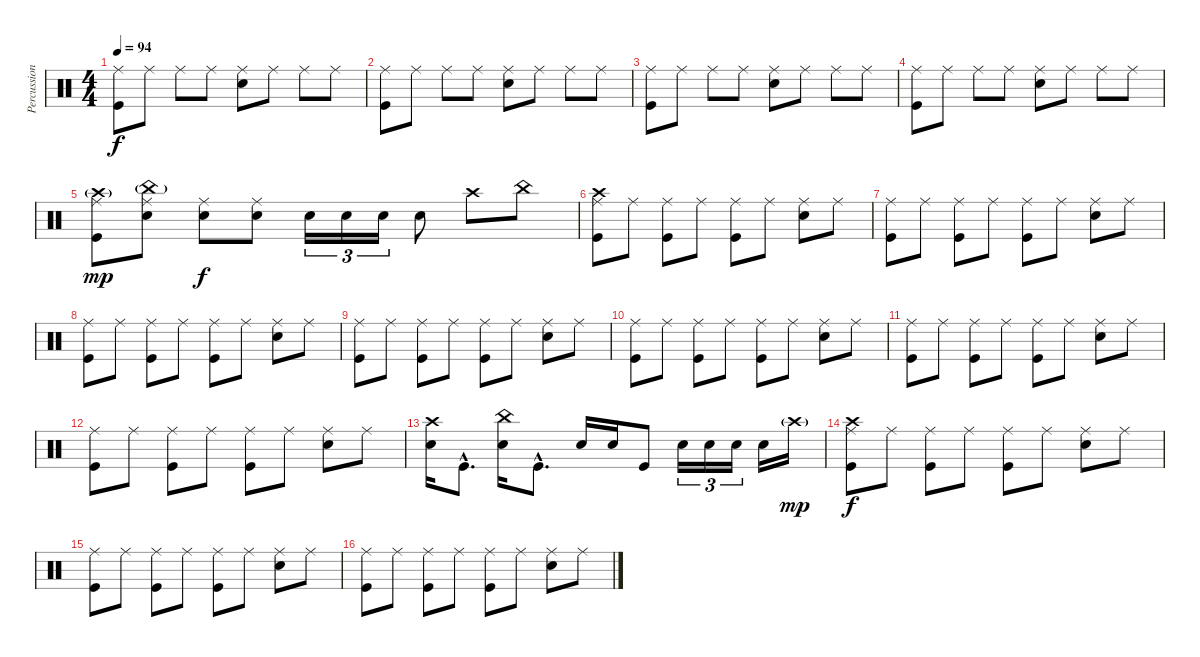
\track ("Percussions" "Percussion") {instrument percussion}
\staff {score}
\articulation defaults
\ts (4 4)
\tempo 94
\clef neutral
\ks c
("Ride (middle)" "Kick (hit)").8{dy f} "Ride (middle)".8 "Ride (middle)".8 "Ride (middle)".8 ("Ride (middle)" "Snare (hit) 2").8 "Ride (middle)".8 "Ride (middle)".8 "Ride (middle)".8 |
("Ride (middle)" "Kick (hit)").8 "Ride (middle)".8 "Ride (middle)".8 "Ride (middle)".8 ("Ride (middle)" "Snare (hit) 2").8 "Ride (middle)".8 "Ride (middle)".8 "Ride (middle)".8 |
("Ride (middle)" "Kick (hit)").8 "Ride (middle)".8 "Ride (middle)".8 "Ride (middle)".8 ("Ride (middle)" "Snare (hit) 2").8 "Ride (middle)".8 "Ride (middle)".8 "Ride (middle)".8 |
("Ride (middle)" "Kick (hit)").8 "Ride (middle)".8 "Ride (middle)".8 "Ride (middle)".8 ("Ride (middle)" "Snare (hit) 2").8 "Ride (middle)".8 "Ride (middle)".8 "Ride (middle)".8 |
("Ride (middle)" "Crash high (hit)"{g} "Kick (hit)").8{dy mp} ("Ride (middle)" "China (hit)"{g} "Snare (hit) 2").8 ("Ride (middle)" "Snare (hit) 2").8{dy f} ("Ride (middle)" "Snare (hit) 2").8 "Snare (hit) 2".16{tu (3 2)} "Snare (hit) 2".16{tu (3 2)} "Snare (hit) 2".16{tu (3 2)} "Snare (hit) 2".8 "Crash high (hit)".8 "China (hit)".8 |
("Ride (middle)" "Crash high (hit)" "Kick (hit)").8 "Ride (middle)".8 ("Ride (middle)" "Kick (hit)").8 "Ride (middle)".8 ("Ride (middle)" "Kick (hit)").8 "Ride (middle)".8 ("Ride (middle)" "Snare (hit) 2").8 "Ride (middle)".8 |
("Ride (middle)" "Kick (hit)").8 "Ride (middle)".8 ("Ride (middle)" "Kick (hit)").8 "Ride (middle)".8 ("Ride (middle)" "Kick (hit)").8 "Ride (middle)".8 ("Ride (middle)" "Snare (hit) 2").8 "Ride (middle)".8 |
("Ride (middle)" "Kick (hit)").8 "Ride (middle)".8 ("Ride (middle)" "Kick (hit)").8 "Ride (middle)".8 ("Ride (middle)" "Kick (hit)").8 "Ride (middle)".8 ("Ride (middle)" "Snare (hit) 2").8 "Ride (middle)".8 |
("Ride (middle)" "Kick (hit)").8 "Ride (middle)".8 ("Ride (middle)" "Kick (hit)").8 "Ride (middle)".8 ("Ride (middle)" "Kick (hit)").8 "Ride (middle)".8 ("Ride (middle)" "Snare (hit) 2").8 "Ride (middle)".8 |
("Ride (middle)" "Kick (hit)").8 "Ride (middle)".8 ("Ride (middle)" "Kick (hit)").8 "Ride (middle)".8 ("Ride (middle)" "Kick (hit)").8 "Ride (middle)".8 ("Ride (middle)" "Snare (hit) 2").8 "Ride (middle)".8 |
("Ride (middle)" "Kick (hit)").8 "Ride (middle)".8 ("Ride (middle)" "Kick (hit)").8 "Ride (middle)".8 ("Ride (middle)" "Kick (hit)").8 "Ride (middle)".8 ("Ride (middle)" "Snare (hit) 2").8 "Ride (middle)".8 |
("Ride (middle)" "Kick (hit)").8 "Ride (middle)".8 ("Ride (middle)" "Kick (hit)").8 "Ride (middle)".8 ("Ride (middle)" "Kick (hit)").8 "Ride (middle)".8 ("Ride (middle)" "Snare (hit) 2").8 "Ride (middle)".8 |
("Crash high (hit)" "Snare (hit) 2").16 "Kick (hit)"{hac}.8{d} ("China (hit)" "Snare (hit) 2").16 "Kick (hit)"{hac}.8{d} "Snare (hit) 2".16 "Snare (hit) 2".16 "Kick (hit)".8 "Snare (hit) 2".16{tu (3 2)} "Snare (hit) 2".16{tu (3 2)} "Snare (hit) 2".16{tu (3 2)} "Snare (hit) 2".16 "Crash high (hit)"{g}.16{dy mp} |
("Ride (middle)" "Crash high (hit)" "Kick (hit)").8{dy f} "Ride (middle)".8 ("Ride (middle)" "Kick (hit)").8 "Ride (middle)".8 ("Ride (middle)" "Kick (hit)").8 "Ride (middle)".8 ("Ride (middle)" "Snare (hit) 2").8 "Ride (middle)".8 |
("Ride (middle)" "Kick (hit)").8 "Ride (middle)".8 ("Ride (middle)" "Kick (hit)").8 "Ride (middle)".8 ("Ride (middle)" "Kick (hit)").8 "Ride (middle)".8 ("Ride (middle)" "Snare (hit) 2").8 "Ride (middle)".8 |
("Ride (middle)" "Kick (hit)").8 "Ride (middle)".8 ("Ride (middle)" "Kick (hit)").8 "Ride (middle)".8 ("Ride (middle)" "Kick (hit)").8 "Ride (middle)".8 ("Ride (middle)" "Snare (hit) 2").8 "Ride (middle)".8
